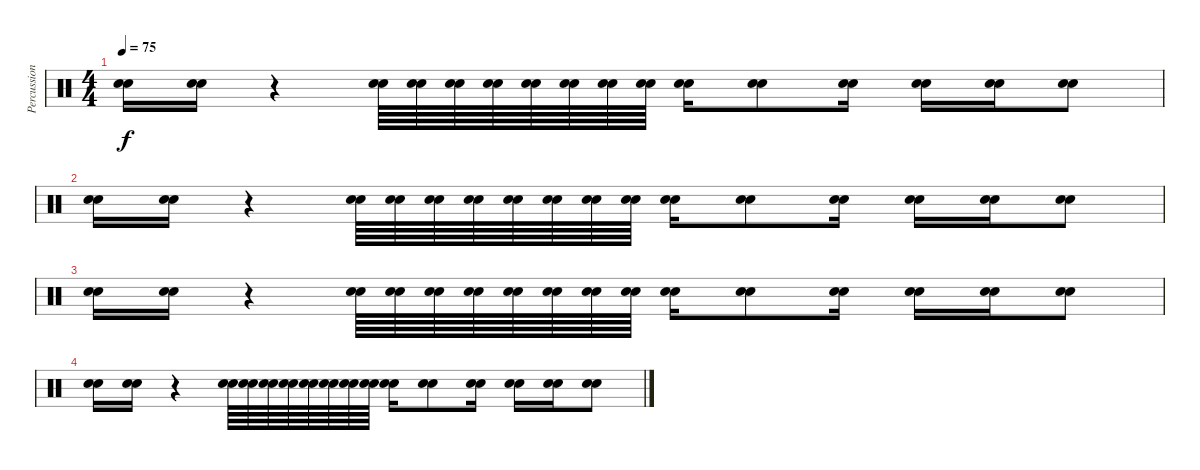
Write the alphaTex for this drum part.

\track ("Percussions" "Percussion") {instrument percussion}
\staff {score}
\articulation defaults
\ts (4 4)
\tempo 75
\clef neutral
\ks c
("Snare (hit) 2" "Electric Snare (hit)").16{dy f} ("Snare (hit) 2" "Electric Snare (hit)").16 r.4 ("Snare (hit) 2" "Electric Snare (hit)").64 ("Snare (hit) 2" "Electric Snare (hit)").64 ("Snare (hit) 2" "Electric Snare (hit)").64 ("Snare (hit) 2" "Electric Snare (hit)").64 ("Snare (hit) 2" "Electric Snare (hit)").64 ("Snare (hit) 2" "Electric Snare (hit)").64 ("Snare (hit) 2" "Electric Snare (hit)").64 ("Snare (hit) 2" "Electric Snare (hit)").64 ("Snare (hit) 2" "Electric Snare (hit)").16 ("Snare (hit) 2" "Electric Snare (hit)").8 ("Snare (hit) 2" "Electric Snare (hit)").16 ("Snare (hit) 2" "Electric Snare (hit)").16 ("Snare (hit) 2" "Electric Snare (hit)").16 ("Snare (hit) 2" "Electric Snare (hit)").8 |
("Snare (hit) 2" "Electric Snare (hit)").16 ("Snare (hit) 2" "Electric Snare (hit)").16 r.4 ("Snare (hit) 2" "Electric Snare (hit)").64 ("Snare (hit) 2" "Electric Snare (hit)").64 ("Snare (hit) 2" "Electric Snare (hit)").64 ("Snare (hit) 2" "Electric Snare (hit)").64 ("Snare (hit) 2" "Electric Snare (hit)").64 ("Snare (hit) 2" "Electric Snare (hit)").64 ("Snare (hit) 2" "Electric Snare (hit)").64 ("Snare (hit) 2" "Electric Snare (hit)").64 ("Snare (hit) 2" "Electric Snare (hit)").16 ("Snare (hit) 2" "Electric Snare (hit)").8 ("Snare (hit) 2" "Electric Snare (hit)").16 ("Snare (hit) 2" "Electric Snare (hit)").16 ("Snare (hit) 2" "Electric Snare (hit)").16 ("Snare (hit) 2" "Electric Snare (hit)").8 |
("Snare (hit) 2" "Electric Snare (hit)").16 ("Snare (hit) 2" "Electric Snare (hit)").16 r.4 ("Snare (hit) 2" "Electric Snare (hit)").64 ("Snare (hit) 2" "Electric Snare (hit)").64 ("Snare (hit) 2" "Electric Snare (hit)").64 ("Snare (hit) 2" "Electric Snare (hit)").64 ("Snare (hit) 2" "Electric Snare (hit)").64 ("Snare (hit) 2" "Electric Snare (hit)").64 ("Snare (hit) 2" "Electric Snare (hit)").64 ("Snare (hit) 2" "Electric Snare (hit)").64 ("Snare (hit) 2" "Electric Snare (hit)").16 ("Snare (hit) 2" "Electric Snare (hit)").8 ("Snare (hit) 2" "Electric Snare (hit)").16 ("Snare (hit) 2" "Electric Snare (hit)").16 ("Snare (hit) 2" "Electric Snare (hit)").16 ("Snare (hit) 2" "Electric Snare (hit)").8 |
("Snare (hit) 2" "Electric Snare (hit)").16 ("Snare (hit) 2" "Electric Snare (hit)").16 r.4 ("Snare (hit) 2" "Electric Snare (hit)").64 ("Snare (hit) 2" "Electric Snare (hit)").64 ("Snare (hit) 2" "Electric Snare (hit)").64 ("Snare (hit) 2" "Electric Snare (hit)").64 ("Snare (hit) 2" "Electric Snare (hit)").64 ("Snare (hit) 2" "Electric Snare (hit)").64 ("Snare (hit) 2" "Electric Snare (hit)").64 ("Snare (hit) 2" "Electric Snare (hit)").64 ("Snare (hit) 2" "Electric Snare (hit)").16 ("Snare (hit) 2" "Electric Snare (hit)").8 ("Snare (hit) 2" "Electric Snare (hit)").16 ("Snare (hit) 2" "Electric Snare (hit)").16 ("Snare (hit) 2" "Electric Snare (hit)").16 ("Snare (hit) 2" "Electric Snare (hit)").8
